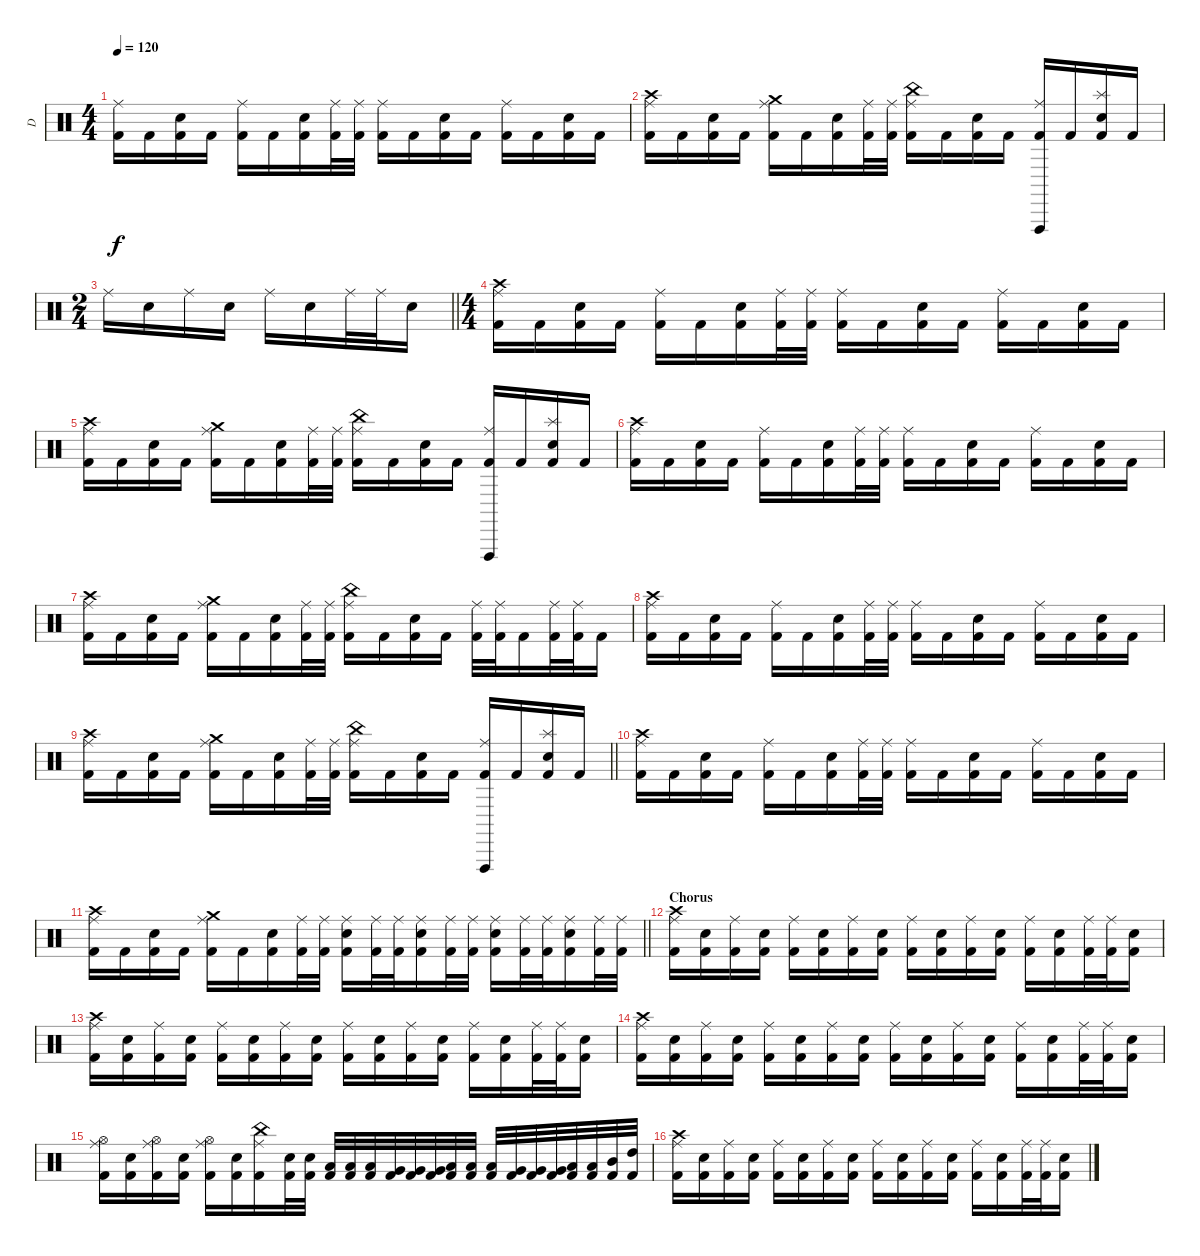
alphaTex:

\track ("D" "D") {instrument percussion}
\staff {score}
\articulation defaults
\ts (4 4)
\tempo 120
\clef neutral
\ks c
("Ride (middle)" "Kick (hit) 2").16{dy f} "Kick (hit) 2".16 ("Electric Snare (hit)" "Kick (hit) 2").16 "Kick (hit) 2".16 ("Ride (middle)" "Kick (hit) 2").16 "Kick (hit) 2".16 ("Electric Snare (hit)" "Kick (hit) 2").16 ("Ride (middle)" "Kick (hit) 2").32 ("Ride (middle)" "Kick (hit) 2").32 ("Ride (middle)" "Kick (hit) 2").16 "Kick (hit) 2".16 ("Electric Snare (hit)" "Kick (hit) 2").16 "Kick (hit) 2".16 ("Ride (middle)" "Kick (hit) 2").16 "Kick (hit) 2".16 ("Electric Snare (hit)" "Kick (hit) 2").16 "Kick (hit) 2".16 |
("Crash high (hit)" "Ride (middle)" "Kick (hit) 2").16 "Kick (hit) 2".16 ("Electric Snare (hit)" "Kick (hit) 2").16 "Kick (hit) 2".16 ("Crash medium (hit)" "Ride (middle)" "Kick (hit) 2").16 "Kick (hit) 2".16 ("Electric Snare (hit)" "Kick (hit) 2").16 ("Ride (middle)" "Kick (hit) 2").32 ("Ride (middle)" "Kick (hit) 2").32 ("China (hit)" "Ride (middle)" "Kick (hit) 2").16 "Kick (hit) 2".16 ("Electric Snare (hit)" "Kick (hit) 2").16 "Kick (hit) 2".16 ("Vibraslap (hit)" "Ride (middle)" "Kick (hit) 2").16 "Kick (hit) 2".16 ("Splash (hit)" "Electric Snare (hit)" "Kick (hit) 2").16 "Kick (hit) 2".16 |
\ts (2 4)
\barLineRight lightlight "Ride (middle)".16 "Electric Snare (hit)".16 "Ride (middle)".16 "Electric Snare (hit)".16 "Ride (middle)".16 "Electric Snare (hit)".16 "Ride (middle)".32 "Ride (middle)".32 "Electric Snare (hit)".16
|
\ts (4 4)
("Crash high (hit)" "Ride (middle)" "Kick (hit) 2").16 "Kick (hit) 2".16 ("Electric Snare (hit)" "Kick (hit) 2").16 "Kick (hit) 2".16 ("Ride (middle)" "Kick (hit) 2").16 "Kick (hit) 2".16 ("Electric Snare (hit)" "Kick (hit) 2").16 ("Ride (middle)" "Kick (hit) 2").32 ("Ride (middle)" "Kick (hit) 2").32 ("Ride (middle)" "Kick (hit) 2").16 "Kick (hit) 2".16 ("Electric Snare (hit)" "Kick (hit) 2").16 "Kick (hit) 2".16 ("Ride (middle)" "Kick (hit) 2").16 "Kick (hit) 2".16 ("Electric Snare (hit)" "Kick (hit) 2").16 "Kick (hit) 2".16 |
("Crash high (hit)" "Ride (middle)" "Kick (hit) 2").16 "Kick (hit) 2".16 ("Electric Snare (hit)" "Kick (hit) 2").16 "Kick (hit) 2".16 ("Crash medium (hit)" "Ride (middle)" "Kick (hit) 2").16 "Kick (hit) 2".16 ("Electric Snare (hit)" "Kick (hit) 2").16 ("Ride (middle)" "Kick (hit) 2").32 ("Ride (middle)" "Kick (hit) 2").32 ("China (hit)" "Ride (middle)" "Kick (hit) 2").16 "Kick (hit) 2".16 ("Electric Snare (hit)" "Kick (hit) 2").16 "Kick (hit) 2".16 ("Vibraslap (hit)" "Ride (middle)" "Kick (hit) 2").16 "Kick (hit) 2".16 ("Splash (hit)" "Electric Snare (hit)" "Kick (hit) 2").16 "Kick (hit) 2".16 |
("Crash high (hit)" "Ride (middle)" "Kick (hit) 2").16 "Kick (hit) 2".16 ("Electric Snare (hit)" "Kick (hit) 2").16 "Kick (hit) 2".16 ("Ride (middle)" "Kick (hit) 2").16 "Kick (hit) 2".16 ("Electric Snare (hit)" "Kick (hit) 2").16 ("Ride (middle)" "Kick (hit) 2").32 ("Ride (middle)" "Kick (hit) 2").32 ("Ride (middle)" "Kick (hit) 2").16 "Kick (hit) 2".16 ("Electric Snare (hit)" "Kick (hit) 2").16 "Kick (hit) 2".16 ("Ride (middle)" "Kick (hit) 2").16 "Kick (hit) 2".16 ("Electric Snare (hit)" "Kick (hit) 2").16 "Kick (hit) 2".16 |
("Crash high (hit)" "Ride (middle)" "Kick (hit) 2").16 "Kick (hit) 2".16 ("Electric Snare (hit)" "Kick (hit) 2").16 "Kick (hit) 2".16 ("Crash medium (hit)" "Ride (middle)" "Kick (hit) 2").16 "Kick (hit) 2".16 ("Electric Snare (hit)" "Kick (hit) 2").16 ("Ride (middle)" "Kick (hit) 2").32 ("Ride (middle)" "Kick (hit) 2").32 ("China (hit)" "Ride (middle)" "Kick (hit) 2").16 "Kick (hit) 2".16 ("Electric Snare (hit)" "Kick (hit) 2").16 "Kick (hit) 2".16 ("Ride (middle)" "Kick (hit) 2").32 ("Ride (middle)" "Kick (hit) 2").32 "Kick (hit) 2".16 ("Ride (middle)" "Kick (hit) 2").32 ("Ride (middle)" "Kick (hit) 2").32 "Kick (hit) 2".16 |
("Crash high (hit)" "Ride (middle)" "Kick (hit) 2").16 "Kick (hit) 2".16 ("Electric Snare (hit)" "Kick (hit) 2").16 "Kick (hit) 2".16 ("Ride (middle)" "Kick (hit) 2").16 "Kick (hit) 2".16 ("Electric Snare (hit)" "Kick (hit) 2").16 ("Ride (middle)" "Kick (hit) 2").32 ("Ride (middle)" "Kick (hit) 2").32 ("Ride (middle)" "Kick (hit) 2").16 "Kick (hit) 2".16 ("Electric Snare (hit)" "Kick (hit) 2").16 "Kick (hit) 2".16 ("Ride (middle)" "Kick (hit) 2").16 "Kick (hit) 2".16 ("Electric Snare (hit)" "Kick (hit) 2").16 "Kick (hit) 2".16 |
\barLineRight lightlight
("Crash high (hit)" "Ride (middle)" "Kick (hit) 2").16 "Kick (hit) 2".16 ("Electric Snare (hit)" "Kick (hit) 2").16 "Kick (hit) 2".16 ("Crash medium (hit)" "Ride (middle)" "Kick (hit) 2").16 "Kick (hit) 2".16 ("Electric Snare (hit)" "Kick (hit) 2").16 ("Ride (middle)" "Kick (hit) 2").32 ("Ride (middle)" "Kick (hit) 2").32 ("China (hit)" "Ride (middle)" "Kick (hit) 2").16 "Kick (hit) 2".16 ("Electric Snare (hit)" "Kick (hit) 2").16 "Kick (hit) 2".16 ("Vibraslap (hit)" "Ride (middle)" "Kick (hit) 2").16 "Kick (hit) 2".16 ("Splash (hit)" "Electric Snare (hit)" "Kick (hit) 2").16 "Kick (hit) 2".16 |
("Crash high (hit)" "Ride (middle)" "Kick (hit) 2").16 "Kick (hit) 2".16 ("Electric Snare (hit)" "Kick (hit) 2").16 "Kick (hit) 2".16 ("Ride (middle)" "Kick (hit) 2").16 "Kick (hit) 2".16 ("Electric Snare (hit)" "Kick (hit) 2").16 ("Ride (middle)" "Kick (hit) 2").32 ("Ride (middle)" "Kick (hit) 2").32 ("Ride (middle)" "Kick (hit) 2").16 "Kick (hit) 2".16 ("Electric Snare (hit)" "Kick (hit) 2").16 "Kick (hit) 2".16 ("Ride (middle)" "Kick (hit) 2").16 "Kick (hit) 2".16 ("Electric Snare (hit)" "Kick (hit) 2").16 "Kick (hit) 2".16 |
\barLineRight lightlight
("Crash high (hit)" "Ride (middle)" "Kick (hit) 2").16 "Kick (hit) 2".16 ("Electric Snare (hit)" "Kick (hit) 2").16 "Kick (hit) 2".16 ("Crash medium (hit)" "Ride (middle)" "Kick (hit) 2").16 "Kick (hit) 2".16 ("Electric Snare (hit)" "Kick (hit) 2").16 ("Ride (middle)" "Kick (hit) 2").32 ("Ride (middle)" "Kick (hit) 2").32 ("Ride (middle)" "Electric Snare (hit)" "Kick (hit) 2").16 ("Ride (middle)" "Kick (hit) 2").32 ("Ride (middle)" "Kick (hit) 2").32 ("Ride (middle)" "Electric Snare (hit)" "Kick (hit) 2").16 ("Ride (middle)" "Kick (hit) 2").32 ("Ride (middle)" "Kick (hit) 2").32 ("Ride (middle)" "Electric Snare (hit)" "Kick (hit) 2").16 ("Ride (middle)" "Kick (hit) 2").32 ("Ride (middle)" "Kick (hit) 2").32 ("Ride (middle)" "Electric Snare (hit)" "Kick (hit) 2").16 ("Ride (middle)" "Kick (hit) 2").32 ("Ride (middle)" "Kick (hit) 2").32 |
\section ("" "Chorus")
("Crash high (hit)" "Ride (middle)" "Kick (hit) 2").16 ("Electric Snare (hit)" "Kick (hit) 2").16 ("Ride (middle)" "Kick (hit) 2").16 ("Electric Snare (hit)" "Kick (hit) 2").16 ("Ride (middle)" "Kick (hit) 2").16 ("Electric Snare (hit)" "Kick (hit) 2").16 ("Ride (middle)" "Kick (hit) 2").16 ("Electric Snare (hit)" "Kick (hit) 2").16 ("Ride (middle)" "Kick (hit) 2").16 ("Electric Snare (hit)" "Kick (hit) 2").16 ("Ride (middle)" "Kick (hit) 2").16 ("Electric Snare (hit)" "Kick (hit) 2").16 ("Ride (middle)" "Kick (hit) 2").16 ("Electric Snare (hit)" "Kick (hit) 2").16 ("Ride (middle)" "Kick (hit) 2").32 ("Ride (middle)" "Kick (hit) 2").32 ("Electric Snare (hit)" "Kick (hit) 2").16 |
("Crash high (hit)" "Ride (middle)" "Kick (hit) 2").16 ("Electric Snare (hit)" "Kick (hit) 2").16 ("Ride (middle)" "Kick (hit) 2").16 ("Electric Snare (hit)" "Kick (hit) 2").16 ("Ride (middle)" "Kick (hit) 2").16 ("Electric Snare (hit)" "Kick (hit) 2").16 ("Ride (middle)" "Kick (hit) 2").16 ("Electric Snare (hit)" "Kick (hit) 2").16 ("Ride (middle)" "Kick (hit) 2").16 ("Electric Snare (hit)" "Kick (hit) 2").16 ("Ride (middle)" "Kick (hit) 2").16 ("Electric Snare (hit)" "Kick (hit) 2").16 ("Ride (middle)" "Kick (hit) 2").16 ("Electric Snare (hit)" "Kick (hit) 2").16 ("Ride (middle)" "Kick (hit) 2").32 ("Ride (middle)" "Kick (hit) 2").32 ("Electric Snare (hit)" "Kick (hit) 2").16 |
("Crash high (hit)" "Ride (middle)" "Kick (hit) 2").16 ("Electric Snare (hit)" "Kick (hit) 2").16 ("Ride (middle)" "Kick (hit) 2").16 ("Electric Snare (hit)" "Kick (hit) 2").16 ("Ride (middle)" "Kick (hit) 2").16 ("Electric Snare (hit)" "Kick (hit) 2").16 ("Ride (middle)" "Kick (hit) 2").16 ("Electric Snare (hit)" "Kick (hit) 2").16 ("Ride (middle)" "Kick (hit) 2").16 ("Electric Snare (hit)" "Kick (hit) 2").16 ("Ride (middle)" "Kick (hit) 2").16 ("Electric Snare (hit)" "Kick (hit) 2").16 ("Ride (middle)" "Kick (hit) 2").16 ("Electric Snare (hit)" "Kick (hit) 2").16 ("Ride (middle)" "Kick (hit) 2").32 ("Ride (middle)" "Kick (hit) 2").32 ("Electric Snare (hit)" "Kick (hit) 2").16 |
("Hi-Hat (open)" "Ride (middle)" "Kick (hit) 2").16 ("Electric Snare (hit)" "Kick (hit) 2").16 ("Hi-Hat (open)" "Ride (middle)" "Kick (hit) 2").16 ("Electric Snare (hit)" "Kick (hit) 2").16 ("Hi-Hat (open)" "Ride (middle)" "Kick (hit) 2").16 ("Electric Snare (hit)" "Kick (hit) 2").16 ("China (hit)" "Ride (middle)" "Kick (hit) 2").16 ("Electric Snare (hit)" "Kick (hit) 2").32 ("Electric Snare (hit)" "Kick (hit) 2").32 ("Low Tom (hit)" "Kick (hit) 2").32 ("Low Tom (hit)" "Kick (hit) 2").32 ("Low Tom (hit)" "Kick (hit) 2").32 ("Very Low Tom (hit)" "Kick (hit) 2").32 ("Very Low Tom (hit)" "Kick (hit) 2").32 ("Very Low Tom (hit)" "Kick (hit) 2").32 ("Low Floor Tom (hit)" "Kick (hit) 2").32 ("Low Floor Tom (hit)" "Kick (hit) 2").32 ("Low Floor Tom (hit)" "Kick (hit) 2").32 ("Very Low Tom (hit)" "Kick (hit) 2").32 ("Very Low Tom (hit)" "Kick (hit) 2").32 ("Very Low Tom (hit)" "Kick (hit) 2").32 ("Low Tom (hit)" "Kick (hit) 2").32 ("Low Tom (hit)" "Kick (hit) 2").32 ("Mid Tom (hit)" "Kick (hit) 2").32 ("High Tom (hit)" "Kick (hit) 2").32 |
("Crash high (hit)" "Ride (middle)" "Kick (hit) 2").16 ("Electric Snare (hit)" "Kick (hit) 2").16 ("Ride (middle)" "Kick (hit) 2").16 ("Electric Snare (hit)" "Kick (hit) 2").16 ("Ride (middle)" "Kick (hit) 2").16 ("Electric Snare (hit)" "Kick (hit) 2").16 ("Ride (middle)" "Kick (hit) 2").16 ("Electric Snare (hit)" "Kick (hit) 2").16 ("Ride (middle)" "Kick (hit) 2").16 ("Electric Snare (hit)" "Kick (hit) 2").16 ("Ride (middle)" "Kick (hit) 2").16 ("Electric Snare (hit)" "Kick (hit) 2").16 ("Ride (middle)" "Kick (hit) 2").16 ("Electric Snare (hit)" "Kick (hit) 2").16 ("Ride (middle)" "Kick (hit) 2").32 ("Ride (middle)" "Kick (hit) 2").32 ("Electric Snare (hit)" "Kick (hit) 2").16
